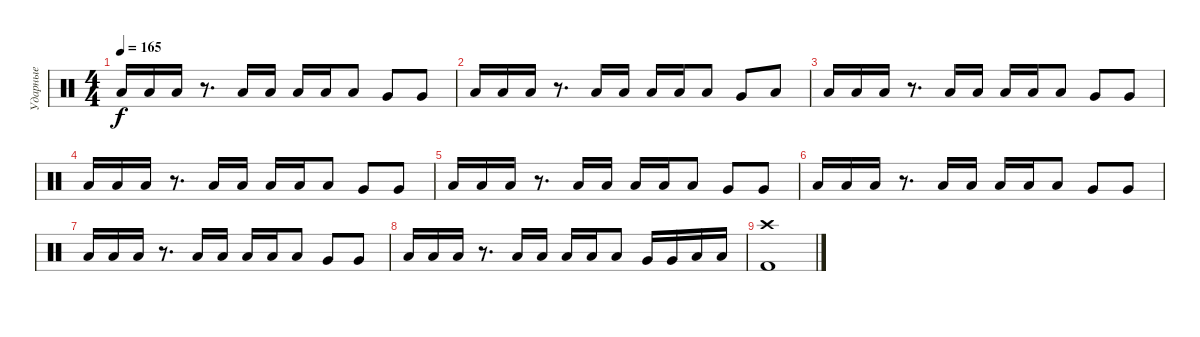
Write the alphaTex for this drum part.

\track ("Ударные" "Ударные") {instrument percussion}
\staff {score}
\articulation defaults
\ts (4 4)
\tempo 165
\clef neutral
\ks c "Low Tom (hit)".16{dy f} "Low Tom (hit)".16 "Low Tom (hit)".16
r.8{d} "Low Tom (hit)".16 "Low Tom (hit)".16 "Low Tom (hit)".16 "Low Tom (hit)".16 "Low Tom (hit)".8 "Very Low Tom (hit)".8 "Very Low Tom (hit)".8 |
"Low Tom (hit)".16 "Low Tom (hit)".16 "Low Tom (hit)".16 r.8{d} "Low Tom (hit)".16 "Low Tom (hit)".16 "Low Tom (hit)".16 "Low Tom (hit)".16 "Low Tom (hit)".8 "Very Low Tom (hit)".8 "Low Floor Tom (hit)".8 |
"Low Tom (hit)".16 "Low Tom (hit)".16 "Low Tom (hit)".16 r.8{d} "Low Tom (hit)".16 "Low Tom (hit)".16 "Low Tom (hit)".16 "Low Tom (hit)".16 "Low Tom (hit)".8 "Very Low Tom (hit)".8 "Very Low Tom (hit)".8 |
"Low Tom (hit)".16 "Low Tom (hit)".16 "Low Tom (hit)".16 r.8{d} "Low Tom (hit)".16 "Low Tom (hit)".16 "Low Tom (hit)".16 "Low Tom (hit)".16 "Low Tom (hit)".8 "Very Low Tom (hit)".8 "Very Low Tom (hit)".8 |
"Low Tom (hit)".16 "Low Tom (hit)".16 "Low Tom (hit)".16 r.8{d} "Low Tom (hit)".16 "Low Tom (hit)".16 "Low Tom (hit)".16 "Low Tom (hit)".16 "Low Tom (hit)".8 "Very Low Tom (hit)".8 "Very Low Tom (hit)".8 |
"Low Tom (hit)".16 "Low Tom (hit)".16 "Low Tom (hit)".16 r.8{d} "Low Tom (hit)".16 "Low Tom (hit)".16 "Low Tom (hit)".16 "Low Tom (hit)".16 "Low Tom (hit)".8 "Very Low Tom (hit)".8 "Very Low Tom (hit)".8 |
"Low Tom (hit)".16 "Low Tom (hit)".16 "Low Tom (hit)".16 r.8{d} "Low Tom (hit)".16 "Low Tom (hit)".16 "Low Tom (hit)".16 "Low Tom (hit)".16 "Low Tom (hit)".8 "Very Low Tom (hit)".8 "Very Low Tom (hit)".8 |
"Low Tom (hit)".16 "Low Tom (hit)".16 "Low Tom (hit)".16 r.8{d} "Low Tom (hit)".16 "Low Tom (hit)".16 "Low Tom (hit)".16 "Low Tom (hit)".16 "Low Tom (hit)".8 "Very Low Tom (hit)".16 "Very Low Tom (hit)".16 "Low Floor Tom (hit)".16 "Low Floor Tom (hit)".16 |
("Crash high (hit)" "Kick (hit) 2").1
